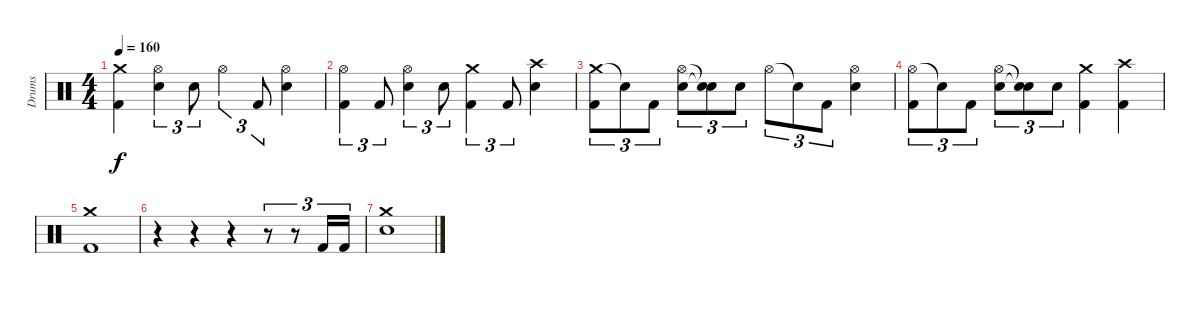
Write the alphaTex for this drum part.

\track ("Drums" "Drums") {instrument percussion}
\staff {score}
\articulation defaults
\ts (4 4)
\tempo 160
\clef neutral
\ks c
("Crash medium (hit)" "Kick (hit) 2").4{dy f} ("Hi-Hat (open)" "Electric Snare (hit)").4{tu (3 2)} "Electric Snare (hit)".8{tu (3 2)} "Hi-Hat (open)".4{tu (3 2)} "Kick (hit) 2".8{tu (3 2)} ("Hi-Hat (open)" "Electric Snare (hit)").4 |
("Hi-Hat (open)" "Kick (hit) 2").4{tu (3 2)} "Kick (hit) 2".8{tu (3 2)} ("Hi-Hat (open)" "Electric Snare (hit)").4{tu (3 2)} "Electric Snare (hit)".8{tu (3 2)} ("Crash medium (hit)" "Kick (hit) 2").4{tu (3 2)} "Kick (hit) 2".8{tu (3 2)} ("Crash high (hit)" "Electric Snare (hit)").4 |
("Crash medium (hit)" "Kick (hit) 2").8{tu (3 2)} "Snare (hit)"{t}.8{tu (3 2)} "Kick (hit) 2".8{tu (3 2)} ("Hi-Hat (open)" "Electric Snare (hit)").8{tu (3 2)} ("Snare (hit)"{t} "Snare (hit)"{t}).8{tu (3 2)} "Electric Snare (hit)".8{tu (3 2)} "Hi-Hat (open)".8{tu (3 2)} "Snare (hit)"{t}.8{tu (3 2)} "Kick (hit) 2".8{tu (3 2)} ("Hi-Hat (open)" "Electric Snare (hit)").4 |
("Hi-Hat (open)" "Kick (hit) 2").8{tu (3 2)} "Snare (hit)"{t}.8{tu (3 2)} "Kick (hit) 2".8{tu (3 2)} ("Hi-Hat (open)" "Electric Snare (hit)").8{tu (3 2)} ("Snare (hit)"{t} "Snare (hit)"{t}).8{tu (3 2)} "Electric Snare (hit)".8{tu (3 2)} ("Crash medium (hit)" "Kick (hit) 2").4 ("Crash high (hit)" "Kick (hit) 2").4 |
("Crash medium (hit)" "Kick (hit) 2").1 |
r.4 r.4 r.4 r.8{tu (3 2)} r.8{tu (3 2)} "Kick (hit) 2".16{tu (3 2)} "Kick (hit) 2".16{tu (3 2)} |
("Crash medium (hit)" "Electric Snare (hit)").1
